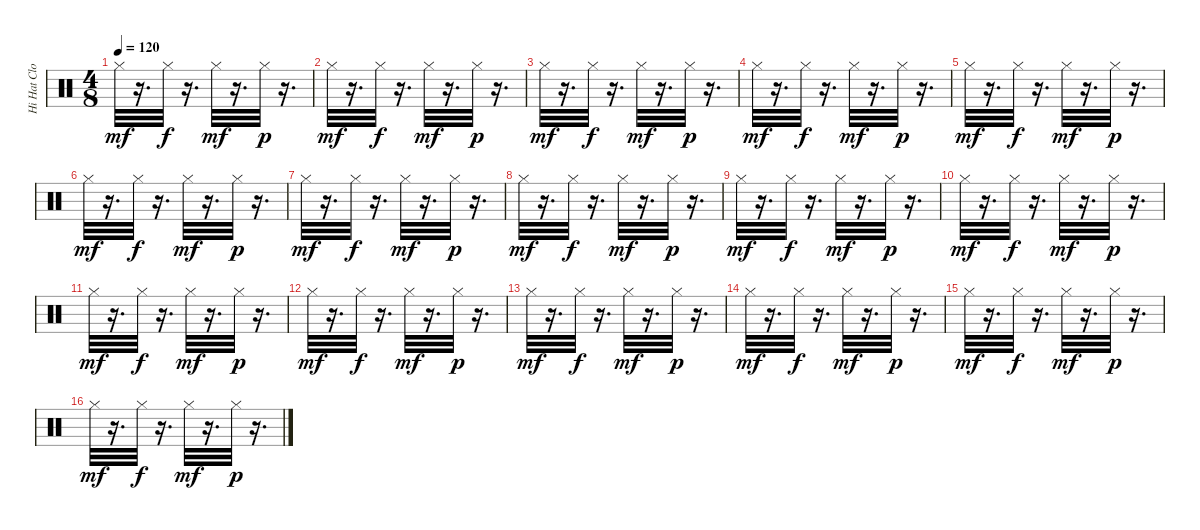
\track ("Hi Hat Close" "Hi Hat Clo") {instrument percussion}
\staff {score}
\articulation defaults
\ts (4 8)
\tempo 120
\clef neutral
\ks c "Hi-Hat (closed)".32{dy mf}
r.16{d} "Hi-Hat (closed)".32{dy f} r.16{d} "Hi-Hat (closed)".32{dy mf} r.16{d} "Hi-Hat (closed)".32{dy p} r.16{d} |
"Hi-Hat (closed)".32{dy mf} r.16{d} "Hi-Hat (closed)".32{dy f} r.16{d} "Hi-Hat (closed)".32{dy mf} r.16{d} "Hi-Hat (closed)".32{dy p} r.16{d} |
"Hi-Hat (closed)".32{dy mf} r.16{d} "Hi-Hat (closed)".32{dy f} r.16{d} "Hi-Hat (closed)".32{dy mf} r.16{d} "Hi-Hat (closed)".32{dy p} r.16{d} |
"Hi-Hat (closed)".32{dy mf} r.16{d} "Hi-Hat (closed)".32{dy f} r.16{d} "Hi-Hat (closed)".32{dy mf} r.16{d} "Hi-Hat (closed)".32{dy p} r.16{d} |
"Hi-Hat (closed)".32{dy mf} r.16{d} "Hi-Hat (closed)".32{dy f} r.16{d} "Hi-Hat (closed)".32{dy mf} r.16{d} "Hi-Hat (closed)".32{dy p} r.16{d} |
"Hi-Hat (closed)".32{dy mf} r.16{d} "Hi-Hat (closed)".32{dy f} r.16{d} "Hi-Hat (closed)".32{dy mf} r.16{d} "Hi-Hat (closed)".32{dy p} r.16{d} |
"Hi-Hat (closed)".32{dy mf} r.16{d} "Hi-Hat (closed)".32{dy f} r.16{d} "Hi-Hat (closed)".32{dy mf} r.16{d} "Hi-Hat (closed)".32{dy p} r.16{d} |
"Hi-Hat (closed)".32{dy mf} r.16{d} "Hi-Hat (closed)".32{dy f} r.16{d} "Hi-Hat (closed)".32{dy mf} r.16{d} "Hi-Hat (closed)".32{dy p} r.16{d} |
"Hi-Hat (closed)".32{dy mf} r.16{d} "Hi-Hat (closed)".32{dy f} r.16{d} "Hi-Hat (closed)".32{dy mf} r.16{d} "Hi-Hat (closed)".32{dy p} r.16{d} |
"Hi-Hat (closed)".32{dy mf} r.16{d} "Hi-Hat (closed)".32{dy f} r.16{d} "Hi-Hat (closed)".32{dy mf} r.16{d} "Hi-Hat (closed)".32{dy p} r.16{d} |
"Hi-Hat (closed)".32{dy mf} r.16{d} "Hi-Hat (closed)".32{dy f} r.16{d} "Hi-Hat (closed)".32{dy mf} r.16{d} "Hi-Hat (closed)".32{dy p} r.16{d} |
"Hi-Hat (closed)".32{dy mf} r.16{d} "Hi-Hat (closed)".32{dy f} r.16{d} "Hi-Hat (closed)".32{dy mf} r.16{d} "Hi-Hat (closed)".32{dy p} r.16{d} |
"Hi-Hat (closed)".32{dy mf} r.16{d} "Hi-Hat (closed)".32{dy f} r.16{d} "Hi-Hat (closed)".32{dy mf} r.16{d} "Hi-Hat (closed)".32{dy p} r.16{d} |
"Hi-Hat (closed)".32{dy mf} r.16{d} "Hi-Hat (closed)".32{dy f} r.16{d} "Hi-Hat (closed)".32{dy mf} r.16{d} "Hi-Hat (closed)".32{dy p} r.16{d} |
"Hi-Hat (closed)".32{dy mf} r.16{d} "Hi-Hat (closed)".32{dy f} r.16{d} "Hi-Hat (closed)".32{dy mf} r.16{d} "Hi-Hat (closed)".32{dy p} r.16{d} |
"Hi-Hat (closed)".32{dy mf} r.16{d} "Hi-Hat (closed)".32{dy f} r.16{d} "Hi-Hat (closed)".32{dy mf} r.16{d} "Hi-Hat (closed)".32{dy p} r.16{d}
